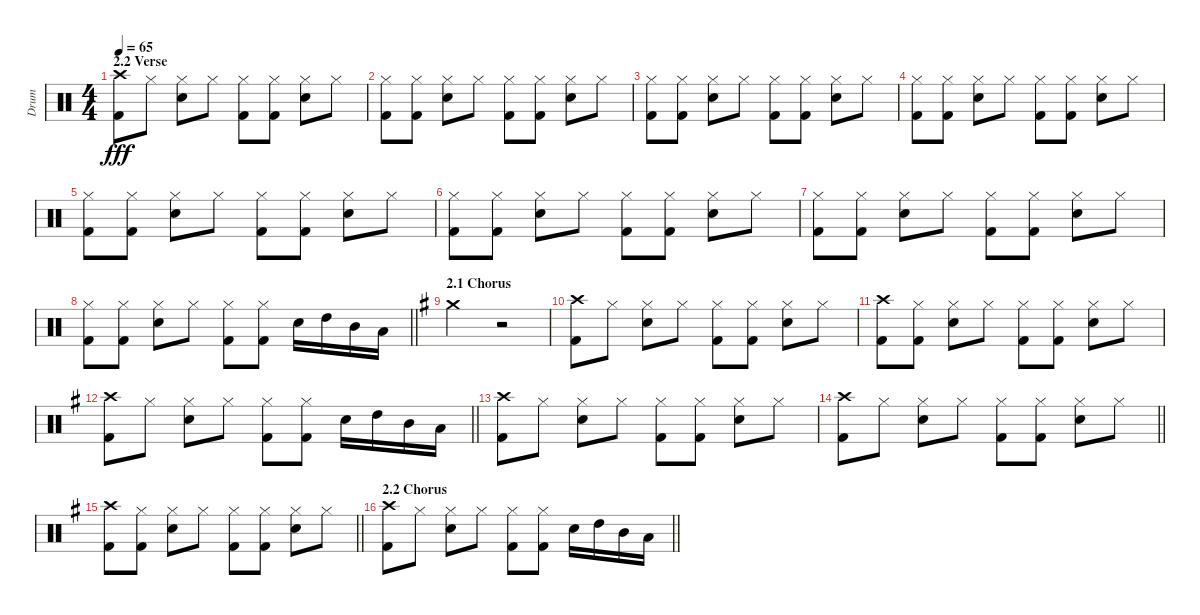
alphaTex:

\track ("Drum" "Drum") {instrument percussion}
\staff {score}
\articulation defaults
\ts (4 4)
\section ("" "2.2 Verse")
\tempo 65
\clef neutral
\ks c
("Crash high (hit)" "Kick (hit) 2").8{dy fff} "Hi-Hat (closed)".8 ("Electric Snare (hit)" "Hi-Hat (closed)").8 "Hi-Hat (closed)".8 ("Kick (hit) 2" "Hi-Hat (closed)").8 ("Kick (hit) 2" "Hi-Hat (closed)").8 ("Electric Snare (hit)" "Hi-Hat (closed)").8 "Hi-Hat (closed)".8 |
("Hi-Hat (closed)" "Kick (hit) 2").8 ("Kick (hit) 2" "Hi-Hat (closed)").8 ("Electric Snare (hit)" "Hi-Hat (closed)").8 "Hi-Hat (closed)".8 ("Kick (hit) 2" "Hi-Hat (closed)").8 ("Kick (hit) 2" "Hi-Hat (closed)").8 ("Electric Snare (hit)" "Hi-Hat (closed)").8 "Hi-Hat (closed)".8 |
("Hi-Hat (closed)" "Kick (hit) 2").8 ("Kick (hit) 2" "Hi-Hat (closed)").8 ("Electric Snare (hit)" "Hi-Hat (closed)").8 "Hi-Hat (closed)".8 ("Kick (hit) 2" "Hi-Hat (closed)").8 ("Kick (hit) 2" "Hi-Hat (closed)").8 ("Electric Snare (hit)" "Hi-Hat (closed)").8 "Hi-Hat (closed)".8 |
("Hi-Hat (closed)" "Kick (hit) 2").8 ("Kick (hit) 2" "Hi-Hat (closed)").8 ("Electric Snare (hit)" "Hi-Hat (closed)").8 "Hi-Hat (closed)".8 ("Kick (hit) 2" "Hi-Hat (closed)").8 ("Kick (hit) 2" "Hi-Hat (closed)").8 ("Electric Snare (hit)" "Hi-Hat (closed)").8 "Hi-Hat (closed)".8 |
("Hi-Hat (closed)" "Kick (hit) 2").8 ("Kick (hit) 2" "Hi-Hat (closed)").8 ("Electric Snare (hit)" "Hi-Hat (closed)").8 "Hi-Hat (closed)".8 ("Kick (hit) 2" "Hi-Hat (closed)").8 ("Kick (hit) 2" "Hi-Hat (closed)").8 ("Electric Snare (hit)" "Hi-Hat (closed)").8 "Hi-Hat (closed)".8 |
("Hi-Hat (closed)" "Kick (hit) 2").8 ("Kick (hit) 2" "Hi-Hat (closed)").8 ("Electric Snare (hit)" "Hi-Hat (closed)").8 "Hi-Hat (closed)".8 ("Kick (hit) 2" "Hi-Hat (closed)").8 ("Kick (hit) 2" "Hi-Hat (closed)").8 ("Electric Snare (hit)" "Hi-Hat (closed)").8 "Hi-Hat (closed)".8 |
("Hi-Hat (closed)" "Kick (hit) 2").8 ("Kick (hit) 2" "Hi-Hat (closed)").8 ("Electric Snare (hit)" "Hi-Hat (closed)").8 "Hi-Hat (closed)".8 ("Kick (hit) 2" "Hi-Hat (closed)").8 ("Kick (hit) 2" "Hi-Hat (closed)").8 ("Electric Snare (hit)" "Hi-Hat (closed)").8 "Hi-Hat (closed)".8 |
\barLineRight lightlight
("Hi-Hat (closed)" "Kick (hit) 2").8 ("Kick (hit) 2" "Hi-Hat (closed)").8 ("Electric Snare (hit)" "Hi-Hat (closed)").8 "Hi-Hat (closed)".8 ("Hi-Hat (closed)" "Kick (hit) 2").8 ("Hi-Hat (closed)" "Kick (hit) 2").8 "Electric Snare (hit)".16 "High Tom (hit)".16 "Mid Tom (hit)".16 "Low Tom (hit)".16 |
\section ("" "2.1 Chorus")
\ks eminor "Crash medium (hit)".2
r.2 |
("Crash high (hit)" "Kick (hit) 2").8 "Hi-Hat (closed)".8 ("Electric Snare (hit)" "Hi-Hat (closed)").8 "Hi-Hat (closed)".8 ("Kick (hit) 2" "Hi-Hat (closed)").8 ("Kick (hit) 2" "Hi-Hat (closed)").8 ("Electric Snare (hit)" "Hi-Hat (closed)").8 "Hi-Hat (closed)".8 |
("Crash high (hit)" "Kick (hit) 2").8 ("Kick (hit) 2" "Hi-Hat (closed)").8 ("Electric Snare (hit)" "Hi-Hat (closed)").8 "Hi-Hat (closed)".8 ("Kick (hit) 2" "Hi-Hat (closed)").8 ("Kick (hit) 2" "Hi-Hat (closed)").8 ("Electric Snare (hit)" "Hi-Hat (closed)").8 "Hi-Hat (closed)".8 |
\barLineRight lightlight
("Crash high (hit)" "Kick (hit) 2").8 "Hi-Hat (closed)".8 ("Electric Snare (hit)" "Hi-Hat (closed)").8 "Hi-Hat (closed)".8 ("Kick (hit) 2" "Hi-Hat (closed)").8 ("Kick (hit) 2" "Hi-Hat (closed)").8 "Electric Snare (hit)".16 "High Tom (hit)".16 "Mid Tom (hit)".16 "Low Tom (hit)".16 |
("Crash high (hit)" "Kick (hit) 2").8 "Hi-Hat (closed)".8 ("Electric Snare (hit)" "Hi-Hat (closed)").8 "Hi-Hat (closed)".8 ("Kick (hit) 2" "Hi-Hat (closed)").8 ("Kick (hit) 2" "Hi-Hat (closed)").8 ("Electric Snare (hit)" "Hi-Hat (closed)").8 "Hi-Hat (closed)".8 |
\barLineRight lightlight
("Crash high (hit)" "Kick (hit) 2").8 "Hi-Hat (closed)".8 ("Electric Snare (hit)" "Hi-Hat (closed)").8 "Hi-Hat (closed)".8 ("Kick (hit) 2" "Hi-Hat (closed)").8 ("Kick (hit) 2" "Hi-Hat (closed)").8 ("Electric Snare (hit)" "Hi-Hat (closed)").8 "Hi-Hat (closed)".8 |
\barLineRight lightlight
("Crash high (hit)" "Kick (hit) 2").8 ("Kick (hit) 2" "Hi-Hat (closed)").8 ("Electric Snare (hit)" "Hi-Hat (closed)").8 "Hi-Hat (closed)".8 ("Kick (hit) 2" "Hi-Hat (closed)").8 ("Kick (hit) 2" "Hi-Hat (closed)").8 ("Electric Snare (hit)" "Hi-Hat (closed)").8 "Hi-Hat (closed)".8 |
\section ("" "2.2 Chorus")
\barLineRight lightlight
("Crash high (hit)" "Kick (hit) 2").8 "Hi-Hat (closed)".8 ("Electric Snare (hit)" "Hi-Hat (closed)").8 "Hi-Hat (closed)".8 ("Kick (hit) 2" "Hi-Hat (closed)").8 ("Kick (hit) 2" "Hi-Hat (closed)").8 "Electric Snare (hit)".16 "High Tom (hit)".16 "Mid Tom (hit)".16 "Low Tom (hit)".16
